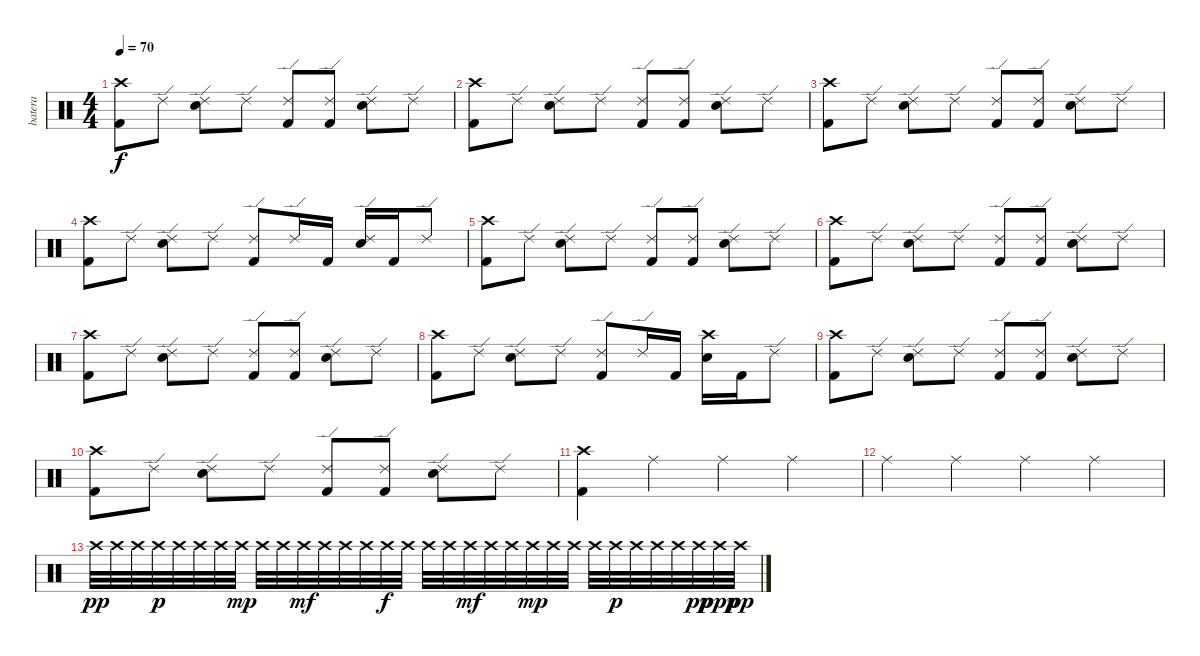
\track ("batera" "batera") {instrument percussion}
\staff {score}
\articulation defaults
\ts (4 4)
\tempo 70
\clef neutral
\ks c
("Crash high (hit)" "Kick (hit) 2").8{dy f} "Ride (edge) 2".8 ("Electric Snare (hit)" "Ride (edge) 2").8 "Ride (edge) 2".8 ("Kick (hit) 2" "Ride (edge) 2").8 ("Kick (hit) 2" "Ride (edge) 2").8 ("Electric Snare (hit)" "Ride (edge) 2").8 "Ride (edge) 2".8 |
("Crash high (hit)" "Kick (hit) 2").8 "Ride (edge) 2".8 ("Electric Snare (hit)" "Ride (edge) 2").8 "Ride (edge) 2".8 ("Kick (hit) 2" "Ride (edge) 2").8 ("Kick (hit) 2" "Ride (edge) 2").8 ("Electric Snare (hit)" "Ride (edge) 2").8 "Ride (edge) 2".8 |
("Crash high (hit)" "Kick (hit) 2").8 "Ride (edge) 2".8 ("Electric Snare (hit)" "Ride (edge) 2").8 "Ride (edge) 2".8 ("Kick (hit) 2" "Ride (edge) 2").8 ("Kick (hit) 2" "Ride (edge) 2").8 ("Electric Snare (hit)" "Ride (edge) 2").8 "Ride (edge) 2".8 |
("Crash high (hit)" "Kick (hit) 2").8 "Ride (edge) 2".8 ("Electric Snare (hit)" "Ride (edge) 2").8 "Ride (edge) 2".8 ("Kick (hit) 2" "Ride (edge) 2").8 "Ride (edge) 2".16 "Kick (hit) 2".16 ("Electric Snare (hit)" "Ride (edge) 2").16 "Kick (hit) 2".16 "Ride (edge) 2".8 |
("Crash high (hit)" "Kick (hit) 2").8 "Ride (edge) 2".8 ("Electric Snare (hit)" "Ride (edge) 2").8 "Ride (edge) 2".8 ("Kick (hit) 2" "Ride (edge) 2").8 ("Kick (hit) 2" "Ride (edge) 2").8 ("Electric Snare (hit)" "Ride (edge) 2").8 "Ride (edge) 2".8 |
("Crash high (hit)" "Kick (hit) 2").8 "Ride (edge) 2".8 ("Electric Snare (hit)" "Ride (edge) 2").8 "Ride (edge) 2".8 ("Kick (hit) 2" "Ride (edge) 2").8 ("Kick (hit) 2" "Ride (edge) 2").8 ("Electric Snare (hit)" "Ride (edge) 2").8 "Ride (edge) 2".8 |
("Crash high (hit)" "Kick (hit) 2").8 "Ride (edge) 2".8 ("Electric Snare (hit)" "Ride (edge) 2").8 "Ride (edge) 2".8 ("Kick (hit) 2" "Ride (edge) 2").8 ("Kick (hit) 2" "Ride (edge) 2").8 ("Electric Snare (hit)" "Ride (edge) 2").8 "Ride (edge) 2".8 |
("Crash high (hit)" "Kick (hit) 2").8 "Ride (edge) 2".8 ("Electric Snare (hit)" "Ride (edge) 2").8 "Ride (edge) 2".8 ("Kick (hit) 2" "Ride (edge) 2").8 "Ride (edge) 2".16 "Kick (hit) 2".16 ("Crash high (hit)" "Electric Snare (hit)").16 "Kick (hit) 2".16 "Ride (edge) 2".8 |
("Crash high (hit)" "Kick (hit) 2").8 "Ride (edge) 2".8 ("Electric Snare (hit)" "Ride (edge) 2").8 "Ride (edge) 2".8 ("Kick (hit) 2" "Ride (edge) 2").8 ("Kick (hit) 2" "Ride (edge) 2").8 ("Electric Snare (hit)" "Ride (edge) 2").8 "Ride (edge) 2".8 |
("Crash high (hit)" "Kick (hit) 2").8 "Ride (edge) 2".8 ("Electric Snare (hit)" "Ride (edge) 2").8 "Ride (edge) 2".8 ("Kick (hit) 2" "Ride (edge) 2").8 ("Kick (hit) 2" "Ride (edge) 2").8 ("Electric Snare (hit)" "Ride (edge) 2").8 "Ride (edge) 2".8 |
("Crash high (hit)" "Kick (hit) 2").4 "Ride (middle)".4 "Ride (middle)".4 "Ride (middle)".4 |
"Ride (middle)".4 "Ride (middle)".4 "Ride (middle)".4 "Ride (middle)".4 |
"Crash high (hit)".32{dy pp} "Crash high (hit)".32 "Crash high (hit)".32 "Crash high (hit)".32{dy p} "Crash high (hit)".32 "Crash high (hit)".32 "Crash high (hit)".32 "Crash high (hit)".32{dy mp} "Crash high (hit)".32 "Crash high (hit)".32 "Crash high (hit)".32{dy mf} "Crash high (hit)".32 "Crash high (hit)".32 "Crash high (hit)".32 "Crash high (hit)".32{dy f} "Crash high (hit)".32 "Crash high (hit)".32 "Crash high (hit)".32 "Crash high (hit)".32{dy mf} "Crash high (hit)".32 "Crash high (hit)".32 "Crash high (hit)".32{dy mp} "Crash high (hit)".32 "Crash high (hit)".32 "Crash high (hit)".32 "Crash high (hit)".32{dy p} "Crash high (hit)".32 "Crash high (hit)".32 "Crash high (hit)".32 "Crash high (hit)".32{dy pp} "Crash high (hit)".32{dy ppp} "Crash high (hit)".32{dy pp}
